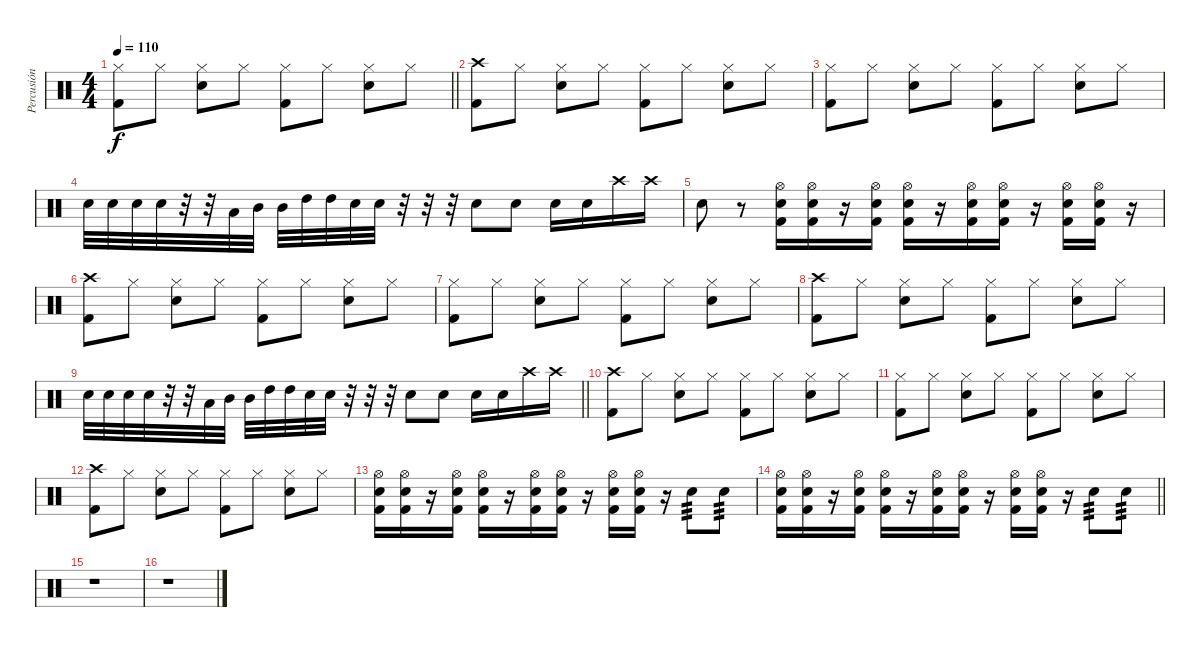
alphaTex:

\track ("Percusión" "Percusión") {instrument percussion}
\staff {score}
\articulation defaults
\ts (4 4)
\tempo 110
\clef neutral
\barLineRight lightlight
\ks c
("Hi-Hat (closed)" "Kick (hit) 2").8{dy f} "Hi-Hat (closed)".8 ("Hi-Hat (closed)" "Snare (hit) 2").8 "Hi-Hat (closed)".8 ("Hi-Hat (closed)" "Kick (hit) 2").8 "Hi-Hat (closed)".8 ("Hi-Hat (closed)" "Snare (hit) 2").8 "Hi-Hat (closed)".8 |
("Crash high (hit)" "Kick (hit) 2").8 "Hi-Hat (closed)".8 ("Hi-Hat (closed)" "Snare (hit) 2").8 "Hi-Hat (closed)".8 ("Hi-Hat (closed)" "Kick (hit) 2").8 "Hi-Hat (closed)".8 ("Hi-Hat (closed)" "Snare (hit) 2").8 "Hi-Hat (closed)".8 |
("Hi-Hat (closed)" "Kick (hit) 2").8 "Hi-Hat (closed)".8 ("Hi-Hat (closed)" "Snare (hit) 2").8 "Hi-Hat (closed)".8 ("Hi-Hat (closed)" "Kick (hit) 2").8 "Hi-Hat (closed)".8 ("Hi-Hat (closed)" "Snare (hit) 2").8 "Hi-Hat (closed)".8 |
"Snare (hit) 2".32 "Snare (hit) 2".32 "Snare (hit) 2".32 "Snare (hit) 2".32 r.32 r.32 "Low Tom (hit)".32 "Mid Tom (hit)".32 "Mid Tom (hit)".32 "High Tom (hit)".32 "High Tom (hit)".32 "Snare (hit) 2".32 "Snare (hit) 2".32 r.32 r.32 r.32 "Snare (hit) 2".8 "Snare (hit) 2".8 "Snare (hit) 2".16 "Snare (hit) 2".16 "Crash high (hit)".16 "Crash high (hit)".16 |
"Snare (hit) 2".8 r.8 ("Hi-Hat (open)" "Snare (hit) 2" "Kick (hit) 2").16 ("Hi-Hat (open)" "Snare (hit) 2" "Kick (hit) 2").16 r.16 ("Hi-Hat (open)" "Snare (hit) 2" "Kick (hit) 2").16 ("Hi-Hat (open)" "Snare (hit) 2" "Kick (hit) 2").16 r.16 ("Hi-Hat (open)" "Snare (hit) 2" "Kick (hit) 2").16 ("Hi-Hat (open)" "Snare (hit) 2" "Kick (hit) 2").16 r.16 ("Hi-Hat (open)" "Snare (hit) 2" "Kick (hit) 2").16 ("Hi-Hat (open)" "Snare (hit) 2" "Kick (hit) 2").16 r.16 |
("Crash high (hit)" "Kick (hit) 2").8 "Hi-Hat (closed)".8 ("Hi-Hat (closed)" "Snare (hit) 2").8 "Hi-Hat (closed)".8 ("Hi-Hat (closed)" "Kick (hit) 2").8 "Hi-Hat (closed)".8 ("Hi-Hat (closed)" "Snare (hit) 2").8 "Hi-Hat (closed)".8 |
("Hi-Hat (closed)" "Kick (hit) 2").8 "Hi-Hat (closed)".8 ("Hi-Hat (closed)" "Snare (hit) 2").8 "Hi-Hat (closed)".8 ("Hi-Hat (closed)" "Kick (hit) 2").8 "Hi-Hat (closed)".8 ("Hi-Hat (closed)" "Snare (hit) 2").8 "Hi-Hat (closed)".8 |
("Crash high (hit)" "Kick (hit) 2").8 "Hi-Hat (closed)".8 ("Hi-Hat (closed)" "Snare (hit) 2").8 "Hi-Hat (closed)".8 ("Hi-Hat (closed)" "Kick (hit) 2").8 "Hi-Hat (closed)".8 ("Hi-Hat (closed)" "Snare (hit) 2").8 "Hi-Hat (closed)".8 |
\barLineRight lightlight "Snare (hit) 2".32 "Snare (hit) 2".32 "Snare (hit) 2".32 "Snare (hit) 2".32
r.32 r.32 "Low Tom (hit)".32 "Mid Tom (hit)".32 "Mid Tom (hit)".32 "High Tom (hit)".32 "High Tom (hit)".32 "Snare (hit) 2".32 "Snare (hit) 2".32 r.32 r.32 r.32 "Snare (hit) 2".8 "Snare (hit) 2".8 "Snare (hit) 2".16 "Snare (hit) 2".16 "Crash high (hit)".16 "Crash high (hit)".16 |
("Crash high (hit)" "Kick (hit) 2").8 "Hi-Hat (closed)".8 ("Hi-Hat (closed)" "Snare (hit) 2").8 "Hi-Hat (closed)".8 ("Hi-Hat (closed)" "Kick (hit) 2").8 "Hi-Hat (closed)".8 ("Hi-Hat (closed)" "Snare (hit) 2").8 "Hi-Hat (closed)".8 |
("Hi-Hat (closed)" "Kick (hit) 2").8 "Hi-Hat (closed)".8 ("Hi-Hat (closed)" "Snare (hit) 2").8 "Hi-Hat (closed)".8 ("Hi-Hat (closed)" "Kick (hit) 2").8 "Hi-Hat (closed)".8 ("Hi-Hat (closed)" "Snare (hit) 2").8 "Hi-Hat (closed)".8 |
("Crash high (hit)" "Kick (hit) 2").8 "Hi-Hat (closed)".8 ("Hi-Hat (closed)" "Snare (hit) 2").8 "Hi-Hat (closed)".8 ("Hi-Hat (closed)" "Kick (hit) 2").8 "Hi-Hat (closed)".8 ("Hi-Hat (closed)" "Snare (hit) 2").8 "Hi-Hat (closed)".8 |
("Hi-Hat (open)" "Snare (hit) 2" "Kick (hit) 2").16 ("Hi-Hat (open)" "Snare (hit) 2" "Kick (hit) 2").16 r.16 ("Hi-Hat (open)" "Snare (hit) 2" "Kick (hit) 2").16 ("Hi-Hat (open)" "Snare (hit) 2" "Kick (hit) 2").16 r.16 ("Hi-Hat (open)" "Snare (hit) 2" "Kick (hit) 2").16 ("Hi-Hat (open)" "Snare (hit) 2" "Kick (hit) 2").16 r.16 ("Hi-Hat (open)" "Snare (hit) 2" "Kick (hit) 2").16 ("Hi-Hat (open)" "Snare (hit) 2" "Kick (hit) 2").16 r.16 "Snare (hit) 2".8{tp 3} "Snare (hit) 2".8{tp 3} |
\barLineRight lightlight
("Hi-Hat (open)" "Snare (hit) 2" "Kick (hit) 2").16 ("Hi-Hat (open)" "Snare (hit) 2" "Kick (hit) 2").16 r.16 ("Hi-Hat (open)" "Snare (hit) 2" "Kick (hit) 2").16 ("Hi-Hat (open)" "Snare (hit) 2" "Kick (hit) 2").16 r.16 ("Hi-Hat (open)" "Snare (hit) 2" "Kick (hit) 2").16 ("Hi-Hat (open)" "Snare (hit) 2" "Kick (hit) 2").16 r.16 ("Hi-Hat (open)" "Snare (hit) 2" "Kick (hit) 2").16 ("Hi-Hat (open)" "Snare (hit) 2" "Kick (hit) 2").16 r.16 "Snare (hit) 2".8{tp 3} "Snare (hit) 2".8{tp 3} |
r.1 |
r.1
